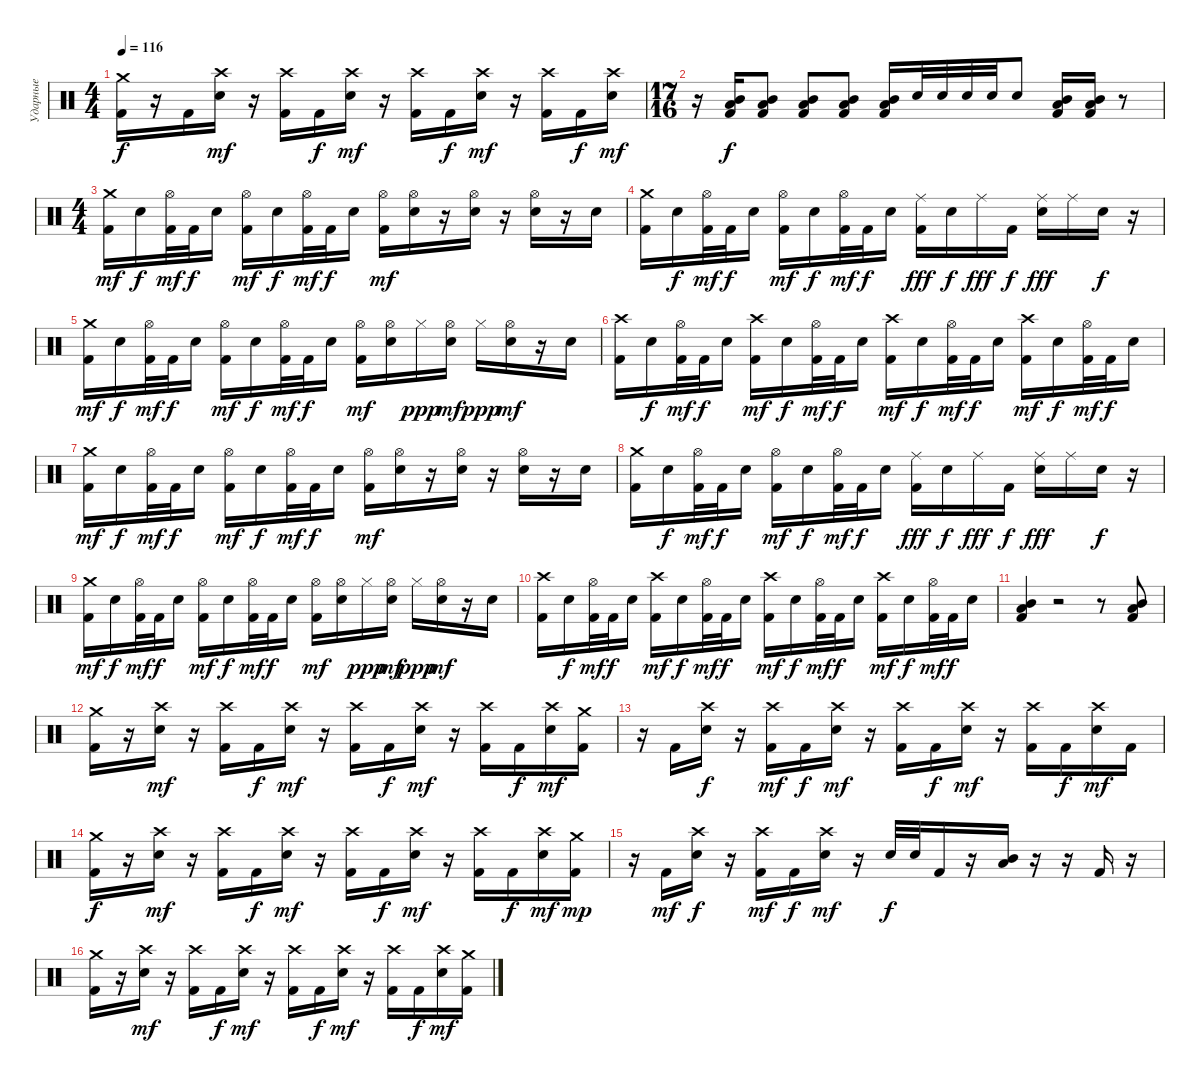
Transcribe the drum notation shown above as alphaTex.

\track ("Ударные" "Ударные") {instrument percussion}
\staff {score}
\articulation defaults
\ts (4 4)
\tempo 116
\clef neutral
\ks c
("Crash medium (hit)" "Kick (hit) 2").16{dy f} r.16 "Kick (hit) 2".16 ("Crash high (hit)" "Electric Snare (hit)").16{dy mf} r.16 ("Crash high (hit)" "Kick (hit) 2").16 "Kick (hit) 2".16{dy f} ("Crash high (hit)" "Electric Snare (hit)").16{dy mf} r.16 ("Crash high (hit)" "Kick (hit) 2").16 "Kick (hit) 2".16{dy f} ("Crash high (hit)" "Electric Snare (hit)").16{dy mf} r.16 ("Crash high (hit)" "Kick (hit) 2").16 "Kick (hit) 2".16{dy f} ("Crash high (hit)" "Electric Snare (hit)").16{dy mf} |
\ts (17 16)
r.16 ("Low Tom (hit)" "Mid Tom (hit)" "Kick (hit) 2").16{dy f} ("Mid Tom (hit)" "Low Tom (hit)" "Kick (hit) 2").8 ("Low Tom (hit)" "Mid Tom (hit)" "Kick (hit) 2").8 ("Low Tom (hit)" "Mid Tom (hit)" "Kick (hit) 2").8 ("Low Tom (hit)" "Mid Tom (hit)" "Kick (hit) 2").16 "Electric Snare (hit)".32 "Electric Snare (hit)".32 "Electric Snare (hit)".32 "Electric Snare (hit)".32 "Electric Snare (hit)".8 ("Low Tom (hit)" "Mid Tom (hit)" "Kick (hit) 2").16 ("Low Tom (hit)" "Mid Tom (hit)" "Kick (hit) 2").16 r.8 |
\ts (4 4)
("Crash medium (hit)" "Kick (hit) 2").16{dy mf} "Electric Snare (hit)".16{dy f} ("Hi-Hat (open)" "Kick (hit) 2").32{dy mf} "Kick (hit) 2".32{dy f} "Electric Snare (hit)".16 ("Hi-Hat (open)" "Kick (hit) 2").16{dy mf} "Electric Snare (hit)".16{dy f} ("Hi-Hat (open)" "Kick (hit) 2").32{dy mf} "Kick (hit) 2".32{dy f} "Electric Snare (hit)".16 ("Hi-Hat (open)" "Kick (hit) 2").16{dy mf} ("Hi-Hat (open)" "Electric Snare (hit)").16 r.16 ("Hi-Hat (open)" "Electric Snare (hit)").16 r.16 ("Hi-Hat (open)" "Electric Snare (hit)").16 r.16 "Electric Snare (hit)".16 |
("Crash medium (hit)" "Kick (hit) 2").16 "Electric Snare (hit)".16{dy f} ("Hi-Hat (open)" "Kick (hit) 2").32{dy mf} "Kick (hit) 2".32{dy f} "Electric Snare (hit)".16 ("Hi-Hat (open)" "Kick (hit) 2").16{dy mf} "Electric Snare (hit)".16{dy f} ("Hi-Hat (open)" "Kick (hit) 2").32{dy mf} "Kick (hit) 2".32{dy f} "Electric Snare (hit)".16 ("Ride (middle)" "Kick (hit) 2").16{dy fff} "Electric Snare (hit)".16{dy f} "Ride (middle)".16{dy fff} "Kick (hit) 2".16{dy f} ("Ride (middle)" "Electric Snare (hit)").16{dy fff} "Ride (middle)".16 "Electric Snare (hit)".16{dy f} r.16 |
("Crash medium (hit)" "Kick (hit) 2").16{dy mf} "Electric Snare (hit)".16{dy f} ("Hi-Hat (open)" "Kick (hit) 2").32{dy mf} "Kick (hit) 2".32{dy f} "Electric Snare (hit)".16 ("Hi-Hat (open)" "Kick (hit) 2").16{dy mf} "Electric Snare (hit)".16{dy f} ("Hi-Hat (open)" "Kick (hit) 2").32{dy mf} "Kick (hit) 2".32{dy f} "Electric Snare (hit)".16 ("Hi-Hat (open)" "Kick (hit) 2").16{dy mf} ("Hi-Hat (open)" "Electric Snare (hit)").16 "Hi-Hat (closed)".16{dy ppp} ("Hi-Hat (open)" "Electric Snare (hit)").16{dy mf} "Hi-Hat (closed)".16{dy ppp} ("Hi-Hat (open)" "Electric Snare (hit)").16{dy mf} r.16 "Electric Snare (hit)".16 |
("Crash high (hit)" "Kick (hit) 2").16 "Electric Snare (hit)".16{dy f} ("Hi-Hat (open)" "Kick (hit) 2").32{dy mf} "Kick (hit) 2".32{dy f} "Electric Snare (hit)".16 ("Crash high (hit)" "Kick (hit) 2").16{dy mf} "Electric Snare (hit)".16{dy f} ("Hi-Hat (open)" "Kick (hit) 2").32{dy mf} "Kick (hit) 2".32{dy f} "Electric Snare (hit)".16 ("Crash high (hit)" "Kick (hit) 2").16{dy mf} "Electric Snare (hit)".16{dy f} ("Hi-Hat (open)" "Kick (hit) 2").32{dy mf} "Kick (hit) 2".32{dy f} "Electric Snare (hit)".16 ("Crash high (hit)" "Kick (hit) 2").16{dy mf} "Electric Snare (hit)".16{dy f} ("Hi-Hat (open)" "Kick (hit) 2").32{dy mf} "Kick (hit) 2".32{dy f} "Electric Snare (hit)".16 |
("Crash medium (hit)" "Kick (hit) 2").16{dy mf} "Electric Snare (hit)".16{dy f} ("Hi-Hat (open)" "Kick (hit) 2").32{dy mf} "Kick (hit) 2".32{dy f} "Electric Snare (hit)".16 ("Hi-Hat (open)" "Kick (hit) 2").16{dy mf} "Electric Snare (hit)".16{dy f} ("Hi-Hat (open)" "Kick (hit) 2").32{dy mf} "Kick (hit) 2".32{dy f} "Electric Snare (hit)".16 ("Hi-Hat (open)" "Kick (hit) 2").16{dy mf} ("Hi-Hat (open)" "Electric Snare (hit)").16 r.16 ("Hi-Hat (open)" "Electric Snare (hit)").16 r.16 ("Hi-Hat (open)" "Electric Snare (hit)").16 r.16 "Electric Snare (hit)".16 |
("Crash medium (hit)" "Kick (hit) 2").16 "Electric Snare (hit)".16{dy f} ("Hi-Hat (open)" "Kick (hit) 2").32{dy mf} "Kick (hit) 2".32{dy f} "Electric Snare (hit)".16 ("Hi-Hat (open)" "Kick (hit) 2").16{dy mf} "Electric Snare (hit)".16{dy f} ("Hi-Hat (open)" "Kick (hit) 2").32{dy mf} "Kick (hit) 2".32{dy f} "Electric Snare (hit)".16 ("Ride (middle)" "Kick (hit) 2").16{dy fff} "Electric Snare (hit)".16{dy f} "Ride (middle)".16{dy fff} "Kick (hit) 2".16{dy f} ("Ride (middle)" "Electric Snare (hit)").16{dy fff} "Ride (middle)".16 "Electric Snare (hit)".16{dy f} r.16 |
("Crash medium (hit)" "Kick (hit) 2").16{dy mf} "Electric Snare (hit)".16{dy f} ("Hi-Hat (open)" "Kick (hit) 2").32{dy mf} "Kick (hit) 2".32{dy f} "Electric Snare (hit)".16 ("Hi-Hat (open)" "Kick (hit) 2").16{dy mf} "Electric Snare (hit)".16{dy f} ("Hi-Hat (open)" "Kick (hit) 2").32{dy mf} "Kick (hit) 2".32{dy f} "Electric Snare (hit)".16 ("Hi-Hat (open)" "Kick (hit) 2").16{dy mf} ("Hi-Hat (open)" "Electric Snare (hit)").16 "Hi-Hat (closed)".16{dy ppp} ("Hi-Hat (open)" "Electric Snare (hit)").16{dy mf} "Hi-Hat (closed)".16{dy ppp} ("Hi-Hat (open)" "Electric Snare (hit)").16{dy mf} r.16 "Electric Snare (hit)".16 |
("Crash high (hit)" "Kick (hit) 2").16 "Electric Snare (hit)".16{dy f} ("Hi-Hat (open)" "Kick (hit) 2").32{dy mf} "Kick (hit) 2".32{dy f} "Electric Snare (hit)".16 ("Crash high (hit)" "Kick (hit) 2").16{dy mf} "Electric Snare (hit)".16{dy f} ("Hi-Hat (open)" "Kick (hit) 2").32{dy mf} "Kick (hit) 2".32{dy f} "Electric Snare (hit)".16 ("Crash high (hit)" "Kick (hit) 2").16{dy mf} "Electric Snare (hit)".16{dy f} ("Hi-Hat (open)" "Kick (hit) 2").32{dy mf} "Kick (hit) 2".32{dy f} "Electric Snare (hit)".16 ("Crash high (hit)" "Kick (hit) 2").16{dy mf} "Electric Snare (hit)".16{dy f} ("Hi-Hat (open)" "Kick (hit) 2").32{dy mf} "Kick (hit) 2".32{dy f} "Electric Snare (hit)".16 |
("Low Tom (hit)" "Mid Tom (hit)" "Kick (hit) 2").4 r.2 r.8 ("Low Tom (hit)" "Mid Tom (hit)" "Kick (hit) 2").8 |
("Crash medium (hit)" "Kick (hit) 2").16 r.16 ("Crash high (hit)" "Electric Snare (hit)").16{dy mf} r.16 ("Crash high (hit)" "Kick (hit) 2").16 "Kick (hit) 2".16{dy f} ("Crash high (hit)" "Electric Snare (hit)").16{dy mf} r.16 ("Crash high (hit)" "Kick (hit) 2").16 "Kick (hit) 2".16{dy f} ("Crash high (hit)" "Electric Snare (hit)").16{dy mf} r.16 ("Crash high (hit)" "Kick (hit) 2").16 "Kick (hit) 2".16{dy f} ("Crash high (hit)" "Electric Snare (hit)").16{dy mf} ("Crash medium (hit)" "Kick (hit) 2").16 |
r.16 "Kick (hit) 2".16 ("Crash high (hit)" "Electric Snare (hit)").16{dy f} r.16 ("Crash high (hit)" "Kick (hit) 2").16{dy mf} "Kick (hit) 2".16{dy f} ("Crash high (hit)" "Electric Snare (hit)").16{dy mf} r.16 ("Crash high (hit)" "Kick (hit) 2").16 "Kick (hit) 2".16{dy f} ("Crash high (hit)" "Electric Snare (hit)").16{dy mf} r.16 ("Crash high (hit)" "Kick (hit) 2").16 "Kick (hit) 2".16{dy f} ("Crash high (hit)" "Electric Snare (hit)").16{dy mf} "Kick (hit) 2".16 |
("Crash medium (hit)" "Kick (hit) 2").16{dy f} r.16 ("Crash high (hit)" "Electric Snare (hit)").16{dy mf} r.16 ("Crash high (hit)" "Kick (hit) 2").16 "Kick (hit) 2".16{dy f} ("Crash high (hit)" "Electric Snare (hit)").16{dy mf} r.16 ("Crash high (hit)" "Kick (hit) 2").16 "Kick (hit) 2".16{dy f} ("Crash high (hit)" "Electric Snare (hit)").16{dy mf} r.16 ("Crash high (hit)" "Kick (hit) 2").16 "Kick (hit) 2".16{dy f} ("Crash high (hit)" "Electric Snare (hit)").16{dy mf} ("Crash medium (hit)" "Kick (hit) 2").16{dy mp} |
r.16 "Kick (hit) 2".16{dy mf} ("Crash high (hit)" "Electric Snare (hit)").16{dy f} r.16 ("Crash high (hit)" "Kick (hit) 2").16{dy mf} "Kick (hit) 2".16{dy f} ("Crash high (hit)" "Electric Snare (hit)").16{dy mf} r.16 "Electric Snare (hit)".32{dy f} "Electric Snare (hit)".32 "Kick (hit) 2".16 r.16 ("Mid Tom (hit)" "Low Tom (hit)").16 r.16 r.16 "Kick (hit) 2".16 r.16 |
("Crash medium (hit)" "Kick (hit) 2").16 r.16 ("Crash high (hit)" "Electric Snare (hit)").16{dy mf} r.16 ("Crash high (hit)" "Kick (hit) 2").16 "Kick (hit) 2".16{dy f} ("Crash high (hit)" "Electric Snare (hit)").16{dy mf} r.16 ("Crash high (hit)" "Kick (hit) 2").16 "Kick (hit) 2".16{dy f} ("Crash high (hit)" "Electric Snare (hit)").16{dy mf} r.16 ("Crash high (hit)" "Kick (hit) 2").16 "Kick (hit) 2".16{dy f} ("Crash high (hit)" "Electric Snare (hit)").16{dy mf} ("Crash medium (hit)" "Kick (hit) 2").16
